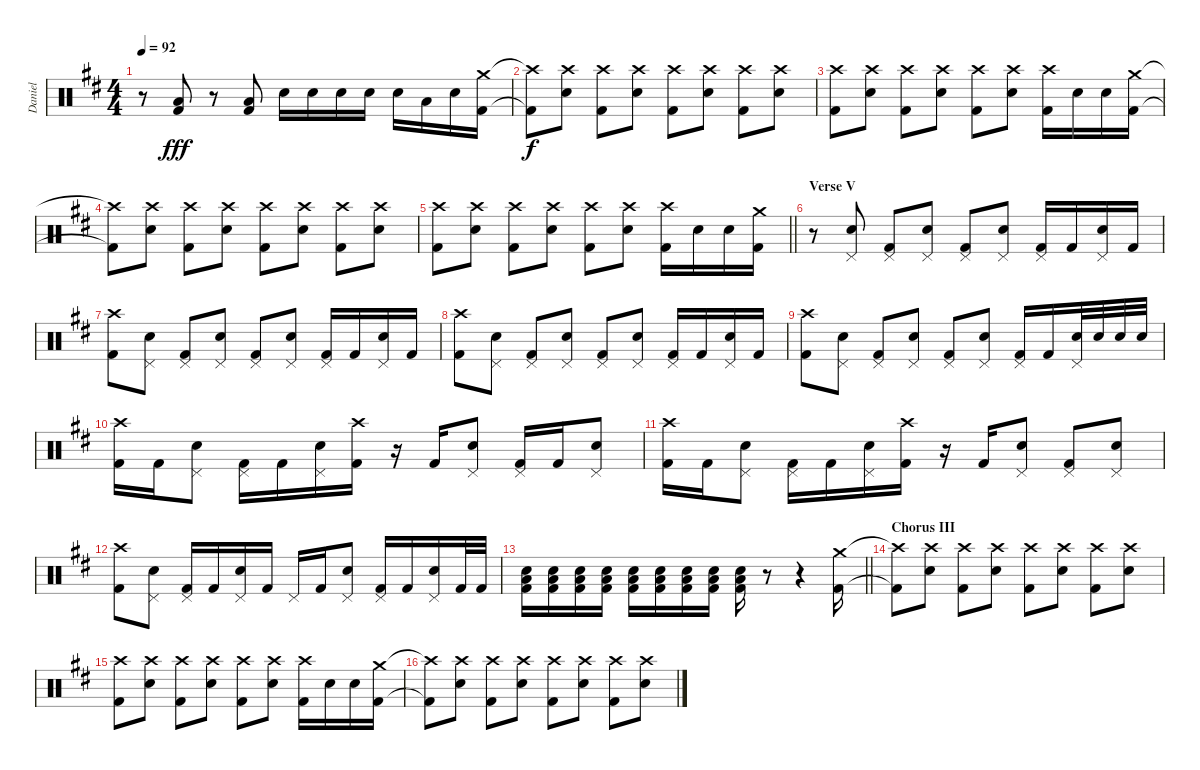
\track ("Daniel" "Daniel") {instrument percussion}
\staff {score}
\articulation defaults
\ts (4 4)
\tempo 92
\clef neutral
\ks bminor
r.8{dy fff} ("Low Floor Tom (hit)" "Kick (hit) 2").8 r.8 ("Low Floor Tom (hit)" "Kick (hit) 2").8 "Electric Snare (hit)".16 "Electric Snare (hit)".16 "Electric Snare (hit)".16 "Electric Snare (hit)".16 "Electric Snare (hit)".16 "Low Floor Tom (hit)".16 "Electric Snare (hit)".16 ("Crash medium (hit)" "Kick (hit) 2").16 |
("Crash high (hit)"{t} "Kick (hit) 2"{t}).8{dy f} ("Crash high (hit)" "Electric Snare (hit)").8 ("Crash high (hit)" "Kick (hit) 2").8 ("Crash high (hit)" "Electric Snare (hit)").8 ("Crash high (hit)" "Kick (hit) 2").8 ("Crash high (hit)" "Electric Snare (hit)").8 ("Crash high (hit)" "Kick (hit) 2").8 ("Crash high (hit)" "Electric Snare (hit)").8 |
("Crash high (hit)" "Kick (hit) 2").8 ("Crash high (hit)" "Electric Snare (hit)").8 ("Crash high (hit)" "Kick (hit) 2").8 ("Crash high (hit)" "Electric Snare (hit)").8 ("Crash high (hit)" "Kick (hit) 2").8 ("Crash high (hit)" "Electric Snare (hit)").8 ("Crash high (hit)" "Kick (hit) 2").16 "Electric Snare (hit)".16 "Electric Snare (hit)".16 ("Crash medium (hit)" "Kick (hit) 2").16 |
("Crash high (hit)"{t} "Kick (hit) 2"{t}).8 ("Crash high (hit)" "Electric Snare (hit)").8 ("Crash high (hit)" "Kick (hit) 2").8 ("Crash high (hit)" "Electric Snare (hit)").8 ("Crash high (hit)" "Kick (hit) 2").8 ("Crash high (hit)" "Electric Snare (hit)").8 ("Crash high (hit)" "Kick (hit) 2").8 ("Crash high (hit)" "Electric Snare (hit)").8 |
\barLineRight lightlight
("Crash high (hit)" "Kick (hit) 2").8 ("Crash high (hit)" "Electric Snare (hit)").8 ("Crash high (hit)" "Kick (hit) 2").8 ("Crash high (hit)" "Electric Snare (hit)").8 ("Crash high (hit)" "Kick (hit) 2").8 ("Crash high (hit)" "Electric Snare (hit)").8 ("Crash high (hit)" "Kick (hit) 2").16 "Electric Snare (hit)".16 "Electric Snare (hit)".16 ("Crash medium (hit)" "Kick (hit) 2").16 |
\section ("" "Verse V")
r.8 ("Pedal Hi-Hat (hit)" "Electric Snare (hit)").8 ("Pedal Hi-Hat (hit)" "Kick (hit) 2").8 ("Pedal Hi-Hat (hit)" "Electric Snare (hit)").8 ("Pedal Hi-Hat (hit)" "Kick (hit) 2").8 ("Pedal Hi-Hat (hit)" "Electric Snare (hit)").8 ("Pedal Hi-Hat (hit)" "Kick (hit) 2").16 "Kick (hit) 2".16 ("Pedal Hi-Hat (hit)" "Electric Snare (hit)").16 "Kick (hit) 2".16 |
("Crash high (hit)" "Kick (hit) 2").8 ("Pedal Hi-Hat (hit)" "Electric Snare (hit)").8 ("Pedal Hi-Hat (hit)" "Kick (hit) 2").8 ("Pedal Hi-Hat (hit)" "Electric Snare (hit)").8 ("Pedal Hi-Hat (hit)" "Kick (hit) 2").8 ("Pedal Hi-Hat (hit)" "Electric Snare (hit)").8 ("Pedal Hi-Hat (hit)" "Kick (hit) 2").16 "Kick (hit) 2".16 ("Pedal Hi-Hat (hit)" "Electric Snare (hit)").16 "Kick (hit) 2".16 |
("Crash high (hit)" "Kick (hit) 2").8 ("Pedal Hi-Hat (hit)" "Electric Snare (hit)").8 ("Pedal Hi-Hat (hit)" "Kick (hit) 2").8 ("Pedal Hi-Hat (hit)" "Electric Snare (hit)").8 ("Pedal Hi-Hat (hit)" "Kick (hit) 2").8 ("Pedal Hi-Hat (hit)" "Electric Snare (hit)").8 ("Pedal Hi-Hat (hit)" "Kick (hit) 2").16 "Kick (hit) 2".16 ("Pedal Hi-Hat (hit)" "Electric Snare (hit)").16 "Kick (hit) 2".16 |
("Crash high (hit)" "Kick (hit) 2").8 ("Pedal Hi-Hat (hit)" "Electric Snare (hit)").8 ("Pedal Hi-Hat (hit)" "Kick (hit) 2").8 ("Pedal Hi-Hat (hit)" "Electric Snare (hit)").8 ("Pedal Hi-Hat (hit)" "Kick (hit) 2").8 ("Pedal Hi-Hat (hit)" "Electric Snare (hit)").8 ("Pedal Hi-Hat (hit)" "Kick (hit) 2").16 "Kick (hit) 2".16 ("Pedal Hi-Hat (hit)" "Electric Snare (hit)").32 "Electric Snare (hit)".32 "Electric Snare (hit)".32 "Electric Snare (hit)".32 |
("Crash high (hit)" "Kick (hit) 2").16 "Kick (hit) 2".16 ("Pedal Hi-Hat (hit)" "Electric Snare (hit)").8 ("Pedal Hi-Hat (hit)" "Kick (hit) 2").16 "Kick (hit) 2".16 ("Pedal Hi-Hat (hit)" "Electric Snare (hit)").16 ("Crash high (hit)" "Kick (hit) 2").16 r.16 "Kick (hit) 2".16 ("Pedal Hi-Hat (hit)" "Electric Snare (hit)").8 ("Pedal Hi-Hat (hit)" "Kick (hit) 2").16 "Kick (hit) 2".16 ("Pedal Hi-Hat (hit)" "Electric Snare (hit)").8 |
("Crash high (hit)" "Kick (hit) 2").16 "Kick (hit) 2".16 ("Pedal Hi-Hat (hit)" "Electric Snare (hit)").8 ("Pedal Hi-Hat (hit)" "Kick (hit) 2").16 "Kick (hit) 2".16 ("Pedal Hi-Hat (hit)" "Electric Snare (hit)").16 ("Crash high (hit)" "Kick (hit) 2").16 r.16 "Kick (hit) 2".16 ("Pedal Hi-Hat (hit)" "Electric Snare (hit)").8 ("Pedal Hi-Hat (hit)" "Kick (hit) 2").8 ("Pedal Hi-Hat (hit)" "Electric Snare (hit)").8 |
("Crash high (hit)" "Kick (hit) 2").8 ("Pedal Hi-Hat (hit)" "Electric Snare (hit)").8 ("Pedal Hi-Hat (hit)" "Kick (hit) 2").16 "Kick (hit) 2".16 ("Pedal Hi-Hat (hit)" "Electric Snare (hit)").16 "Kick (hit) 2".16 "Pedal Hi-Hat (hit)".16 "Kick (hit) 2".16 ("Pedal Hi-Hat (hit)" "Electric Snare (hit)").8 ("Pedal Hi-Hat (hit)" "Kick (hit) 2").16 "Kick (hit) 2".16 ("Pedal Hi-Hat (hit)" "Electric Snare (hit)").16 "Kick (hit) 2".32 "Kick (hit) 2".32 |
\barLineRight lightlight
("Electric Snare (hit)" "Low Floor Tom (hit)" "Kick (hit) 2").16 ("Electric Snare (hit)" "Low Floor Tom (hit)" "Kick (hit) 2").16 ("Electric Snare (hit)" "Low Floor Tom (hit)" "Kick (hit) 2").16 ("Electric Snare (hit)" "Low Floor Tom (hit)" "Kick (hit) 2").16 ("Electric Snare (hit)" "Low Floor Tom (hit)" "Kick (hit) 2").16 ("Electric Snare (hit)" "Low Floor Tom (hit)" "Kick (hit) 2").16 ("Electric Snare (hit)" "Low Floor Tom (hit)" "Kick (hit) 2").16 ("Electric Snare (hit)" "Low Floor Tom (hit)" "Kick (hit) 2").16 ("Electric Snare (hit)" "Low Floor Tom (hit)" "Kick (hit) 2").16 r.8 r.4 ("Crash medium (hit)" "Kick (hit) 2").16 |
\section ("" "Chorus III")
("Crash high (hit)"{t} "Kick (hit) 2"{t}).8 ("Crash high (hit)" "Electric Snare (hit)").8 ("Crash high (hit)" "Kick (hit) 2").8 ("Crash high (hit)" "Electric Snare (hit)").8 ("Crash high (hit)" "Kick (hit) 2").8 ("Crash high (hit)" "Electric Snare (hit)").8 ("Crash high (hit)" "Kick (hit) 2").8 ("Crash high (hit)" "Electric Snare (hit)").8 |
("Crash high (hit)" "Kick (hit) 2").8 ("Crash high (hit)" "Electric Snare (hit)").8 ("Crash high (hit)" "Kick (hit) 2").8 ("Crash high (hit)" "Electric Snare (hit)").8 ("Crash high (hit)" "Kick (hit) 2").8 ("Crash high (hit)" "Electric Snare (hit)").8 ("Crash high (hit)" "Kick (hit) 2").16 "Electric Snare (hit)".16 "Electric Snare (hit)".16 ("Crash medium (hit)" "Kick (hit) 2").16 |
("Crash high (hit)"{t} "Kick (hit) 2"{t}).8 ("Crash high (hit)" "Electric Snare (hit)").8 ("Crash high (hit)" "Kick (hit) 2").8 ("Crash high (hit)" "Electric Snare (hit)").8 ("Crash high (hit)" "Kick (hit) 2").8 ("Crash high (hit)" "Electric Snare (hit)").8 ("Crash high (hit)" "Kick (hit) 2").8 ("Crash high (hit)" "Electric Snare (hit)").8
